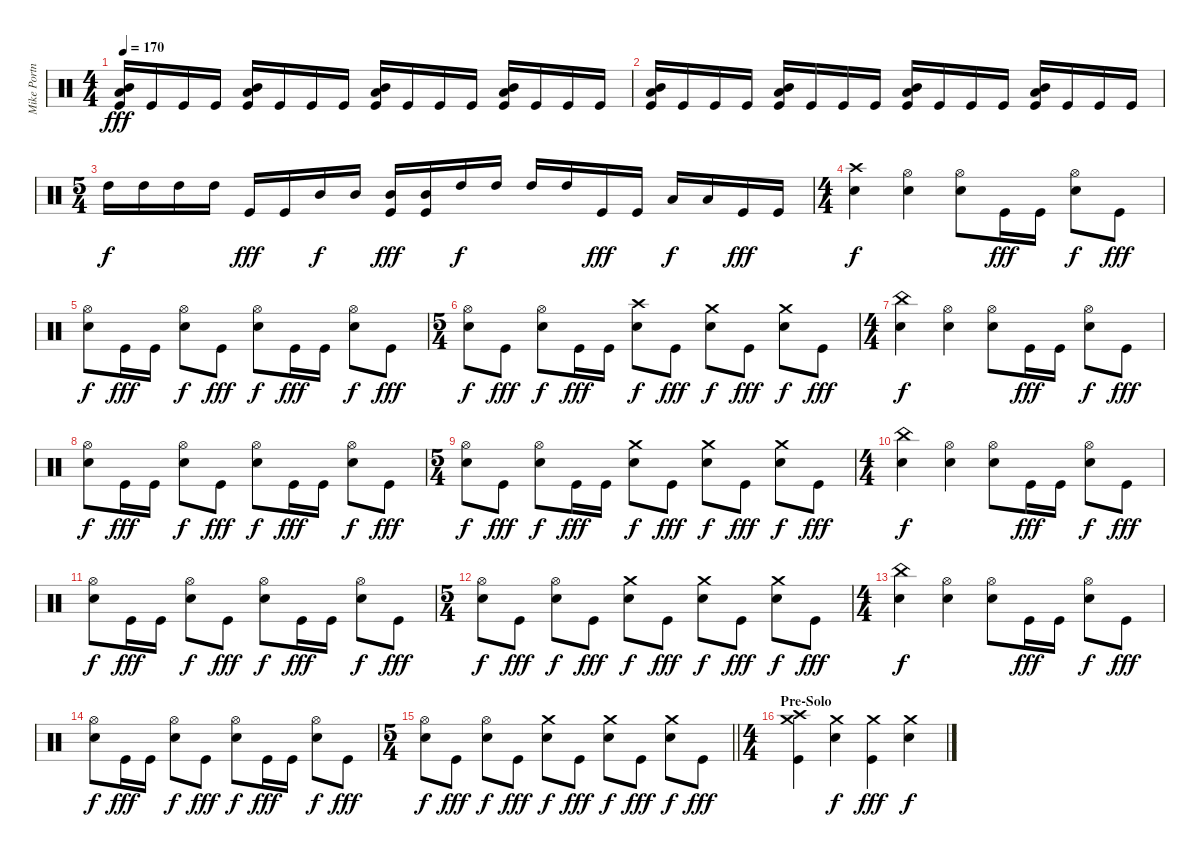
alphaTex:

\track ("Mike Portnoy" "Mike Portn") {instrument percussion}
\staff {score}
\articulation defaults
\ts (4 4)
\tempo 170
\clef neutral
\ks c
("Mid Tom (hit)" "Low Tom (hit)" "Kick (hit)").16{dy fff} "Kick (hit)".16 "Kick (hit)".16 "Kick (hit)".16 ("Mid Tom (hit)" "Low Tom (hit)" "Kick (hit)").16 "Kick (hit)".16 "Kick (hit)".16 "Kick (hit)".16 ("Mid Tom (hit)" "Low Tom (hit)" "Kick (hit)").16 "Kick (hit)".16 "Kick (hit)".16 "Kick (hit)".16 ("Mid Tom (hit)" "Low Tom (hit)" "Kick (hit)").16 "Kick (hit)".16 "Kick (hit)".16 "Kick (hit)".16 |
("Mid Tom (hit)" "Low Tom (hit)" "Kick (hit)").16 "Kick (hit)".16 "Kick (hit)".16 "Kick (hit)".16 ("Mid Tom (hit)" "Low Tom (hit)" "Kick (hit)").16 "Kick (hit)".16 "Kick (hit)".16 "Kick (hit)".16 ("Mid Tom (hit)" "Low Tom (hit)" "Kick (hit)").16 "Kick (hit)".16 "Kick (hit)".16 "Kick (hit)".16 ("Mid Tom (hit)" "Low Tom (hit)" "Kick (hit)").16 "Kick (hit)".16 "Kick (hit)".16 "Kick (hit)".16 |
\ts (5 4)
"High Tom (hit)".16{dy f} "High Tom (hit)".16 "High Tom (hit)".16 "High Tom (hit)".16 "Kick (hit)".16{dy fff} "Kick (hit)".16 "Mid Tom (hit)".16{dy f} "Mid Tom (hit)".16 ("Mid Tom (hit)" "Kick (hit)").16{dy fff} ("Mid Tom (hit)" "Kick (hit)").16 "High Tom (hit)".16{dy f} "High Tom (hit)".16 "High Tom (hit)".16 "High Tom (hit)".16 "Kick (hit)".16{dy fff} "Kick (hit)".16 "Low Tom (hit)".16{dy f} "Low Tom (hit)".16 "Kick (hit)".16{dy fff} "Kick (hit)".16 |
\ts (4 4)
("Crash high (hit)" "Electric Snare (hit)").4{dy f} ("Hi-Hat (open)" "Electric Snare (hit)").4 ("Hi-Hat (open)" "Electric Snare (hit)").8 "Kick (hit)".16{dy fff} "Kick (hit)".16 ("Hi-Hat (open)" "Electric Snare (hit)").8{dy f} "Kick (hit)".8{dy fff} |
("Hi-Hat (open)" "Electric Snare (hit)").8{dy f} "Kick (hit)".16{dy fff} "Kick (hit)".16 ("Hi-Hat (open)" "Electric Snare (hit)").8{dy f} "Kick (hit)".8{dy fff} ("Hi-Hat (open)" "Electric Snare (hit)").8{dy f} "Kick (hit)".16{dy fff} "Kick (hit)".16 ("Hi-Hat (open)" "Electric Snare (hit)").8{dy f} "Kick (hit)".8{dy fff} |
\ts (5 4)
("Hi-Hat (open)" "Electric Snare (hit)").8{dy f} "Kick (hit)".8{dy fff} ("Hi-Hat (open)" "Electric Snare (hit)").8{dy f} "Kick (hit)".16{dy fff} "Kick (hit)".16 ("Crash high (hit)" "Electric Snare (hit)").8{dy f} "Kick (hit)".8{dy fff} ("Crash medium (hit)" "Electric Snare (hit)").8{dy f} "Kick (hit)".8{dy fff} ("Crash medium (hit)" "Electric Snare (hit)").8{dy f} "Kick (hit)".8{dy fff} |
\ts (4 4)
("China (hit)" "Electric Snare (hit)").4{dy f} ("Hi-Hat (open)" "Electric Snare (hit)").4 ("Hi-Hat (open)" "Electric Snare (hit)").8 "Kick (hit)".16{dy fff} "Kick (hit)".16 ("Hi-Hat (open)" "Electric Snare (hit)").8{dy f} "Kick (hit)".8{dy fff} |
("Hi-Hat (open)" "Electric Snare (hit)").8{dy f} "Kick (hit)".16{dy fff} "Kick (hit)".16 ("Hi-Hat (open)" "Electric Snare (hit)").8{dy f} "Kick (hit)".8{dy fff} ("Hi-Hat (open)" "Electric Snare (hit)").8{dy f} "Kick (hit)".16{dy fff} "Kick (hit)".16 ("Hi-Hat (open)" "Electric Snare (hit)").8{dy f} "Kick (hit)".8{dy fff} |
\ts (5 4)
("Hi-Hat (open)" "Electric Snare (hit)").8{dy f} "Kick (hit)".8{dy fff} ("Hi-Hat (open)" "Electric Snare (hit)").8{dy f} "Kick (hit)".16{dy fff} "Kick (hit)".16 ("Crash medium (hit)" "Electric Snare (hit)").8{dy f} "Kick (hit)".8{dy fff} ("Crash medium (hit)" "Electric Snare (hit)").8{dy f} "Kick (hit)".8{dy fff} ("Crash medium (hit)" "Electric Snare (hit)").8{dy f} "Kick (hit)".8{dy fff} |
\ts (4 4)
("China (hit)" "Electric Snare (hit)").4{dy f} ("Hi-Hat (open)" "Electric Snare (hit)").4 ("Hi-Hat (open)" "Electric Snare (hit)").8 "Kick (hit)".16{dy fff} "Kick (hit)".16 ("Hi-Hat (open)" "Electric Snare (hit)").8{dy f} "Kick (hit)".8{dy fff} |
("Hi-Hat (open)" "Electric Snare (hit)").8{dy f} "Kick (hit)".16{dy fff} "Kick (hit)".16 ("Hi-Hat (open)" "Electric Snare (hit)").8{dy f} "Kick (hit)".8{dy fff} ("Hi-Hat (open)" "Electric Snare (hit)").8{dy f} "Kick (hit)".16{dy fff} "Kick (hit)".16 ("Hi-Hat (open)" "Electric Snare (hit)").8{dy f} "Kick (hit)".8{dy fff} |
\ts (5 4)
("Hi-Hat (open)" "Electric Snare (hit)").8{dy f} "Kick (hit)".8{dy fff} ("Hi-Hat (open)" "Electric Snare (hit)").8{dy f} "Kick (hit)".8{dy fff} ("Crash medium (hit)" "Electric Snare (hit)").8{dy f} "Kick (hit)".8{dy fff} ("Crash medium (hit)" "Electric Snare (hit)").8{dy f} "Kick (hit)".8{dy fff} ("Crash medium (hit)" "Electric Snare (hit)").8{dy f} "Kick (hit)".8{dy fff} |
\ts (4 4)
("China (hit)" "Electric Snare (hit)").4{dy f} ("Hi-Hat (open)" "Electric Snare (hit)").4 ("Hi-Hat (open)" "Electric Snare (hit)").8 "Kick (hit)".16{dy fff} "Kick (hit)".16 ("Hi-Hat (open)" "Electric Snare (hit)").8{dy f} "Kick (hit)".8{dy fff} |
("Hi-Hat (open)" "Electric Snare (hit)").8{dy f} "Kick (hit)".16{dy fff} "Kick (hit)".16 ("Hi-Hat (open)" "Electric Snare (hit)").8{dy f} "Kick (hit)".8{dy fff} ("Hi-Hat (open)" "Electric Snare (hit)").8{dy f} "Kick (hit)".16{dy fff} "Kick (hit)".16 ("Hi-Hat (open)" "Electric Snare (hit)").8{dy f} "Kick (hit)".8{dy fff} |
\ts (5 4)
\barLineRight lightlight
("Hi-Hat (open)" "Electric Snare (hit)").8{dy f} "Kick (hit)".8{dy fff} ("Hi-Hat (open)" "Electric Snare (hit)").8{dy f} "Kick (hit)".8{dy fff} ("Crash medium (hit)" "Electric Snare (hit)").8{dy f} "Kick (hit)".8{dy fff} ("Crash medium (hit)" "Electric Snare (hit)").8{dy f} "Kick (hit)".8{dy fff} ("Crash medium (hit)" "Electric Snare (hit)").8{dy f} "Kick (hit)".8{dy fff} |
\ts (4 4)
\section ("" "Pre-Solo")
("Crash high (hit)" "Crash medium (hit)" "Kick (hit)").4 ("Crash medium (hit)" "Electric Snare (hit)").4{dy f} ("Crash medium (hit)" "Kick (hit)").4{dy fff} ("Crash medium (hit)" "Electric Snare (hit)").4{dy f}
